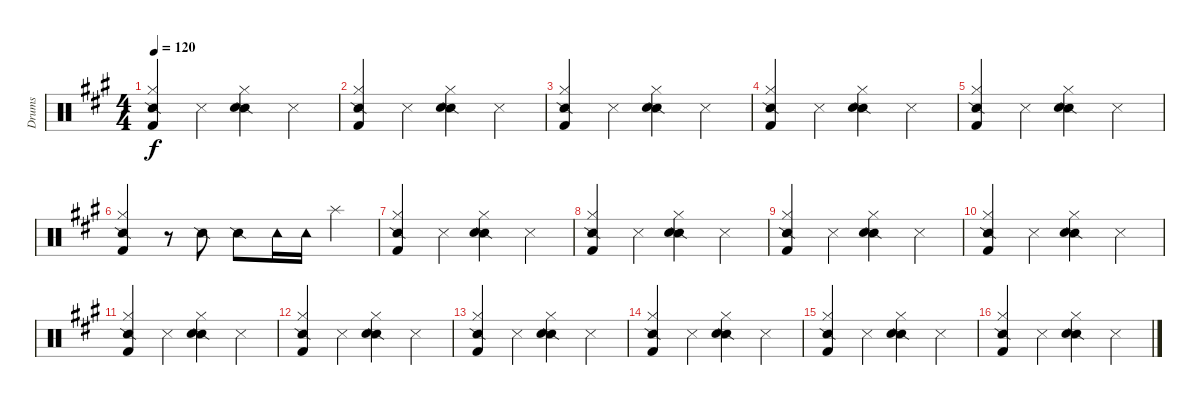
\track ("Drums" "Drums") {instrument percussion}
\staff {score}
\articulation defaults
\ts (4 4)
\tempo 120
\clef neutral
\ks a
("Snare (side stick) 2" "Hi-Hat (closed)" "Kick (hit) 2").4{dy f} "Snare (side stick) 3".4 ("Snare (side stick) 2" "Hi-Hat (closed)" "Electric Snare (hit)").4 "Snare (side stick) 3".4 |
("Snare (side stick) 2" "Hi-Hat (closed)" "Kick (hit) 2").4 "Snare (side stick) 3".4 ("Snare (side stick) 2" "Hi-Hat (closed)" "Electric Snare (hit)").4 "Snare (side stick) 3".4 |
("Snare (side stick) 2" "Hi-Hat (closed)" "Kick (hit) 2").4 "Snare (side stick) 3".4 ("Snare (side stick) 2" "Hi-Hat (closed)" "Electric Snare (hit)").4 "Snare (side stick) 3".4 |
("Snare (side stick) 2" "Hi-Hat (closed)" "Kick (hit) 2").4 "Snare (side stick) 3".4 ("Snare (side stick) 2" "Hi-Hat (closed)" "Electric Snare (hit)").4 "Snare (side stick) 3".4 |
("Snare (side stick) 2" "Hi-Hat (closed)" "Kick (hit) 2").4 "Snare (side stick) 3".4 ("Snare (side stick) 2" "Hi-Hat (closed)" "Electric Snare (hit)").4 "Snare (side stick) 3".4 |
("Snare (side stick) 2" "Hi-Hat (closed)" "Kick (hit) 2").4 r.8 "Snare (side stick) 2".8 "Snare (side stick) 2".8 "Tambourine (hit)".16 "Tambourine (hit)".16 "Splash (hit)".4 |
("Snare (side stick) 2" "Hi-Hat (closed)" "Kick (hit) 2").4 "Snare (side stick) 3".4 ("Snare (side stick) 2" "Hi-Hat (closed)" "Electric Snare (hit)").4 "Snare (side stick) 3".4 |
("Snare (side stick) 2" "Hi-Hat (closed)" "Kick (hit) 2").4 "Snare (side stick) 3".4 ("Snare (side stick) 2" "Hi-Hat (closed)" "Electric Snare (hit)").4 "Snare (side stick) 3".4 |
("Snare (side stick) 2" "Hi-Hat (closed)" "Kick (hit) 2").4 "Snare (side stick) 3".4 ("Snare (side stick) 2" "Hi-Hat (closed)" "Electric Snare (hit)").4 "Snare (side stick) 3".4 |
("Snare (side stick) 2" "Hi-Hat (closed)" "Kick (hit) 2").4 "Snare (side stick) 3".4 ("Snare (side stick) 2" "Hi-Hat (closed)" "Electric Snare (hit)").4 "Snare (side stick) 3".4 |
("Snare (side stick) 2" "Hi-Hat (closed)" "Kick (hit) 2").4 "Snare (side stick) 3".4 ("Snare (side stick) 2" "Hi-Hat (closed)" "Electric Snare (hit)").4 "Snare (side stick) 3".4 |
("Snare (side stick) 2" "Hi-Hat (closed)" "Kick (hit) 2").4 "Snare (side stick) 3".4 ("Snare (side stick) 2" "Hi-Hat (closed)" "Electric Snare (hit)").4 "Snare (side stick) 3".4 |
("Snare (side stick) 2" "Hi-Hat (closed)" "Kick (hit) 2").4 "Snare (side stick) 3".4 ("Snare (side stick) 2" "Hi-Hat (closed)" "Electric Snare (hit)").4 "Snare (side stick) 3".4 |
("Snare (side stick) 2" "Hi-Hat (closed)" "Kick (hit) 2").4 "Snare (side stick) 3".4 ("Snare (side stick) 2" "Hi-Hat (closed)" "Electric Snare (hit)").4 "Snare (side stick) 3".4 |
("Snare (side stick) 2" "Hi-Hat (closed)" "Kick (hit) 2").4 "Snare (side stick) 3".4 ("Snare (side stick) 2" "Hi-Hat (closed)" "Electric Snare (hit)").4 "Snare (side stick) 3".4 |
("Snare (side stick) 2" "Hi-Hat (closed)" "Kick (hit) 2").4 "Snare (side stick) 3".4 ("Snare (side stick) 2" "Hi-Hat (closed)" "Electric Snare (hit)").4 "Snare (side stick) 3".4
